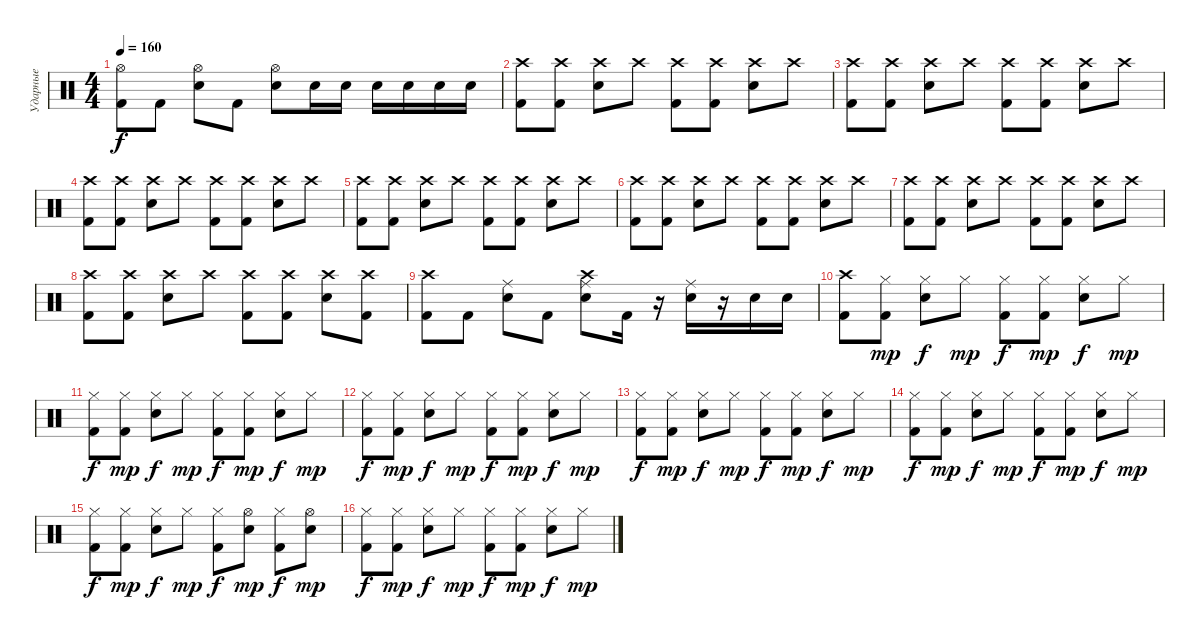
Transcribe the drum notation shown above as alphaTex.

\track ("Ударные" "Ударные") {instrument percussion}
\staff {score}
\articulation defaults
\ts (4 4)
\tempo 160
\clef neutral
\ks c
("Hi-Hat (open)" "Kick (hit) 2").8{dy f} "Kick (hit) 2".8 ("Hi-Hat (open)" "Snare (hit) 2").8 "Kick (hit) 2".8 ("Hi-Hat (open)" "Snare (hit) 2").8 "Snare (hit) 2".16 "Snare (hit) 2".16 "Snare (hit) 2".16 "Snare (hit) 2".16 "Snare (hit) 2".16 "Snare (hit) 2".16 |
("Crash high (hit)" "Kick (hit) 2").8 ("Crash high (hit)" "Kick (hit) 2").8 ("Crash high (hit)" "Snare (hit) 2").8 "Crash high (hit)".8 ("Crash high (hit)" "Kick (hit) 2").8 ("Crash high (hit)" "Kick (hit) 2").8 ("Crash high (hit)" "Snare (hit) 2").8 "Crash high (hit)".8 |
("Crash high (hit)" "Kick (hit) 2").8 ("Crash high (hit)" "Kick (hit) 2").8 ("Crash high (hit)" "Snare (hit) 2").8 "Crash high (hit)".8 ("Crash high (hit)" "Kick (hit) 2").8 ("Crash high (hit)" "Kick (hit) 2").8 ("Crash high (hit)" "Snare (hit) 2").8 "Crash high (hit)".8 |
("Crash high (hit)" "Kick (hit) 2").8 ("Crash high (hit)" "Kick (hit) 2").8 ("Crash high (hit)" "Snare (hit) 2").8 "Crash high (hit)".8 ("Crash high (hit)" "Kick (hit) 2").8 ("Crash high (hit)" "Kick (hit) 2").8 ("Crash high (hit)" "Snare (hit) 2").8 "Crash high (hit)".8 |
("Crash high (hit)" "Kick (hit) 2").8 ("Crash high (hit)" "Kick (hit) 2").8 ("Crash high (hit)" "Snare (hit) 2").8 "Crash high (hit)".8 ("Crash high (hit)" "Kick (hit) 2").8 ("Crash high (hit)" "Kick (hit) 2").8 ("Crash high (hit)" "Snare (hit) 2").8 "Crash high (hit)".8 |
("Crash high (hit)" "Kick (hit) 2").8 ("Crash high (hit)" "Kick (hit) 2").8 ("Crash high (hit)" "Snare (hit) 2").8 "Crash high (hit)".8 ("Crash high (hit)" "Kick (hit) 2").8 ("Crash high (hit)" "Kick (hit) 2").8 ("Crash high (hit)" "Snare (hit) 2").8 "Crash high (hit)".8 |
("Crash high (hit)" "Kick (hit) 2").8 ("Crash high (hit)" "Kick (hit) 2").8 ("Crash high (hit)" "Snare (hit) 2").8 "Crash high (hit)".8 ("Crash high (hit)" "Kick (hit) 2").8 ("Crash high (hit)" "Kick (hit) 2").8 ("Crash high (hit)" "Snare (hit) 2").8 "Crash high (hit)".8 |
("Crash high (hit)" "Kick (hit) 2").8 ("Crash high (hit)" "Kick (hit) 2").8 ("Crash high (hit)" "Snare (hit) 2").8 "Crash high (hit)".8 ("Crash high (hit)" "Kick (hit) 2").8 ("Crash high (hit)" "Kick (hit) 2").8 ("Crash high (hit)" "Snare (hit) 2").8 ("Crash high (hit)" "Kick (hit) 2").8 |
("Crash high (hit)" "Kick (hit) 2").8 "Kick (hit) 2".8 ("Ride (middle)" "Snare (hit) 2").8 "Kick (hit) 2".8 ("Ride (middle)" "Crash high (hit)" "Snare (hit) 2").8 "Kick (hit) 2".16 r.16 ("Ride (middle)" "Snare (hit) 2").16 r.16 "Snare (hit) 2".16 "Snare (hit) 2".16 |
("Crash high (hit)" "Kick (hit) 2").8 ("Hi-Hat (closed)" "Kick (hit) 2").8{dy mp} ("Hi-Hat (closed)" "Snare (hit) 2").8{dy f} "Hi-Hat (closed)".8{dy mp} ("Hi-Hat (closed)" "Kick (hit) 2").8{dy f} ("Hi-Hat (closed)" "Kick (hit) 2").8{dy mp} ("Hi-Hat (closed)" "Snare (hit) 2").8{dy f} "Hi-Hat (closed)".8{dy mp} |
("Hi-Hat (closed)" "Kick (hit) 2").8{dy f} ("Hi-Hat (closed)" "Kick (hit) 2").8{dy mp} ("Hi-Hat (closed)" "Snare (hit) 2").8{dy f} "Hi-Hat (closed)".8{dy mp} ("Hi-Hat (closed)" "Kick (hit) 2").8{dy f} ("Hi-Hat (closed)" "Kick (hit) 2").8{dy mp} ("Hi-Hat (closed)" "Snare (hit) 2").8{dy f} "Hi-Hat (closed)".8{dy mp} |
("Hi-Hat (closed)" "Kick (hit) 2").8{dy f} ("Hi-Hat (closed)" "Kick (hit) 2").8{dy mp} ("Hi-Hat (closed)" "Snare (hit) 2").8{dy f} "Hi-Hat (closed)".8{dy mp} ("Hi-Hat (closed)" "Kick (hit) 2").8{dy f} ("Hi-Hat (closed)" "Kick (hit) 2").8{dy mp} ("Hi-Hat (closed)" "Snare (hit) 2").8{dy f} "Hi-Hat (closed)".8{dy mp} |
("Hi-Hat (closed)" "Kick (hit) 2").8{dy f} ("Hi-Hat (closed)" "Kick (hit) 2").8{dy mp} ("Hi-Hat (closed)" "Snare (hit) 2").8{dy f} "Hi-Hat (closed)".8{dy mp} ("Hi-Hat (closed)" "Kick (hit) 2").8{dy f} ("Hi-Hat (closed)" "Kick (hit) 2").8{dy mp} ("Hi-Hat (closed)" "Snare (hit) 2").8{dy f} "Hi-Hat (closed)".8{dy mp} |
("Hi-Hat (closed)" "Kick (hit) 2").8{dy f} ("Hi-Hat (closed)" "Kick (hit) 2").8{dy mp} ("Hi-Hat (closed)" "Snare (hit) 2").8{dy f} "Hi-Hat (closed)".8{dy mp} ("Hi-Hat (closed)" "Kick (hit) 2").8{dy f} ("Hi-Hat (closed)" "Kick (hit) 2").8{dy mp} ("Hi-Hat (closed)" "Snare (hit) 2").8{dy f} "Hi-Hat (closed)".8{dy mp} |
("Hi-Hat (closed)" "Kick (hit) 2").8{dy f} ("Hi-Hat (closed)" "Kick (hit) 2").8{dy mp} ("Hi-Hat (closed)" "Snare (hit) 2").8{dy f} "Hi-Hat (closed)".8{dy mp} ("Hi-Hat (closed)" "Kick (hit) 2").8{dy f} ("Hi-Hat (open)" "Snare (hit) 2").8{dy mp} ("Hi-Hat (closed)" "Kick (hit) 2").8{dy f} ("Hi-Hat (open)" "Snare (hit) 2").8{dy mp} |
("Hi-Hat (closed)" "Kick (hit) 2").8{dy f} ("Hi-Hat (closed)" "Kick (hit) 2").8{dy mp} ("Hi-Hat (closed)" "Snare (hit) 2").8{dy f} "Hi-Hat (closed)".8{dy mp} ("Hi-Hat (closed)" "Kick (hit) 2").8{dy f} ("Hi-Hat (closed)" "Kick (hit) 2").8{dy mp} ("Hi-Hat (closed)" "Snare (hit) 2").8{dy f} "Hi-Hat (closed)".8{dy mp}
